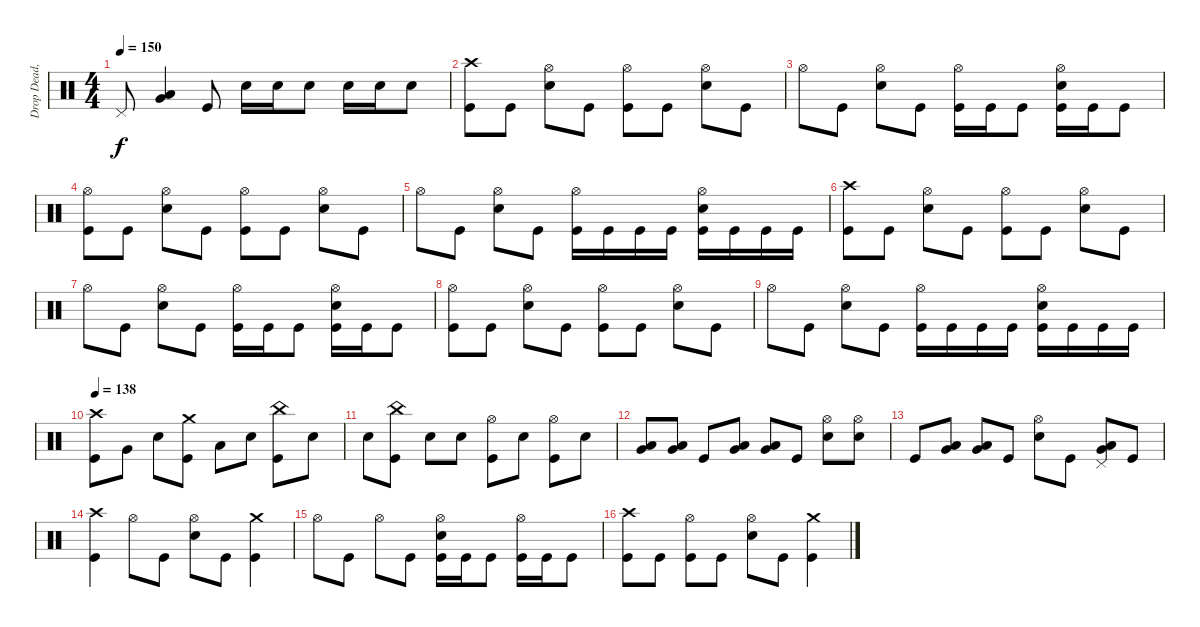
\track ("Drop Dead, Johnny" "Drop Dead,") {instrument percussion}
\staff {score}
\articulation defaults
\ts (4 4)
\tempo 150
\clef neutral
\ks c "Pedal Hi-Hat (hit)".8{dy f}
("Very Low Tom (hit)" "Low Floor Tom (hit)").4 "Kick (hit)".8 "Electric Snare (hit)".16 "Electric Snare (hit)".16 "Electric Snare (hit)".8 "Electric Snare (hit)".16 "Electric Snare (hit)".16 "Electric Snare (hit)".8 |
("Crash high (hit)" "Kick (hit)").8 "Kick (hit)".8 ("Hi-Hat (open)" "Electric Snare (hit)").8 "Kick (hit)".8 ("Hi-Hat (open)" "Kick (hit)").8 "Kick (hit)".8 ("Hi-Hat (open)" "Electric Snare (hit)").8 "Kick (hit)".8 |
"Hi-Hat (open)".8 "Kick (hit)".8 ("Hi-Hat (open)" "Electric Snare (hit)").8 "Kick (hit)".8 ("Hi-Hat (open)" "Kick (hit)").16 "Kick (hit)".16 "Kick (hit)".8 ("Hi-Hat (open)" "Electric Snare (hit)" "Kick (hit)").16 "Kick (hit)".16 "Kick (hit)".8 |
("Hi-Hat (open)" "Kick (hit)").8 "Kick (hit)".8 ("Hi-Hat (open)" "Electric Snare (hit)").8 "Kick (hit)".8 ("Hi-Hat (open)" "Kick (hit)").8 "Kick (hit)".8 ("Hi-Hat (open)" "Electric Snare (hit)").8 "Kick (hit)".8 |
"Hi-Hat (open)".8 "Kick (hit)".8 ("Hi-Hat (open)" "Electric Snare (hit)").8 "Kick (hit)".8 ("Hi-Hat (open)" "Kick (hit)").16 "Kick (hit)".16 "Kick (hit)".16 "Kick (hit)".16 ("Hi-Hat (open)" "Electric Snare (hit)" "Kick (hit)").16 "Kick (hit)".16 "Kick (hit)".16 "Kick (hit)".16 |
("Crash high (hit)" "Kick (hit)").8 "Kick (hit)".8 ("Hi-Hat (open)" "Electric Snare (hit)").8 "Kick (hit)".8 ("Hi-Hat (open)" "Kick (hit)").8 "Kick (hit)".8 ("Hi-Hat (open)" "Electric Snare (hit)").8 "Kick (hit)".8 |
"Hi-Hat (open)".8 "Kick (hit)".8 ("Hi-Hat (open)" "Electric Snare (hit)").8 "Kick (hit)".8 ("Hi-Hat (open)" "Kick (hit)").16 "Kick (hit)".16 "Kick (hit)".8 ("Hi-Hat (open)" "Electric Snare (hit)" "Kick (hit)").16 "Kick (hit)".16 "Kick (hit)".8 |
("Hi-Hat (open)" "Kick (hit)").8 "Kick (hit)".8 ("Hi-Hat (open)" "Electric Snare (hit)").8 "Kick (hit)".8 ("Hi-Hat (open)" "Kick (hit)").8 "Kick (hit)".8 ("Hi-Hat (open)" "Electric Snare (hit)").8 "Kick (hit)".8 |
"Hi-Hat (open)".8 "Kick (hit)".8 ("Hi-Hat (open)" "Electric Snare (hit)").8 "Kick (hit)".8 ("Hi-Hat (open)" "Kick (hit)").16 "Kick (hit)".16 "Kick (hit)".16 "Kick (hit)".16 ("Hi-Hat (open)" "Electric Snare (hit)" "Kick (hit)").16 "Kick (hit)".16 "Kick (hit)".16 "Kick (hit)".16 |
\tempo 138
("Crash high (hit)" "Kick (hit)").8 "Very Low Tom (hit)".8 "Electric Snare (hit)".8 ("Crash medium (hit)" "Kick (hit)").8 "Low Floor Tom (hit)".8 "Electric Snare (hit)".8 ("China (hit)" "Kick (hit)").8 "Electric Snare (hit)".8 |
"Electric Snare (hit)".8 ("China (hit)" "Kick (hit)").8 "Electric Snare (hit)".8 "Electric Snare (hit)".8 ("Hi-Hat (open)" "Kick (hit)").8 "Electric Snare (hit)".8 ("Hi-Hat (open)" "Kick (hit)").8 "Electric Snare (hit)".8 |
("Very Low Tom (hit)" "Low Floor Tom (hit)").8 ("Very Low Tom (hit)" "Low Floor Tom (hit)").8 "Kick (hit)".8 ("Very Low Tom (hit)" "Low Floor Tom (hit)").8 ("Very Low Tom (hit)" "Low Floor Tom (hit)").8 "Kick (hit)".8 ("Hi-Hat (open)" "Electric Snare (hit)").8 ("Hi-Hat (open)" "Electric Snare (hit)").8 |
"Kick (hit)".8 ("Very Low Tom (hit)" "Low Floor Tom (hit)").8 ("Very Low Tom (hit)" "Low Floor Tom (hit)").8 "Kick (hit)".8 ("Hi-Hat (open)" "Electric Snare (hit)").8 "Kick (hit)".8 ("Pedal Hi-Hat (hit)" "Very Low Tom (hit)" "Low Floor Tom (hit)").8 "Kick (hit)".8 |
("Crash high (hit)" "Kick (hit)").4 "Hi-Hat (open)".8 "Kick (hit)".8 ("Hi-Hat (open)" "Electric Snare (hit)").8 "Kick (hit)".8 ("Crash medium (hit)" "Kick (hit)").4 |
"Hi-Hat (open)".8 "Kick (hit)".8 "Hi-Hat (open)".8 "Kick (hit)".8 ("Hi-Hat (open)" "Electric Snare (hit)" "Kick (hit)").16 "Kick (hit)".16 "Kick (hit)".8 ("Hi-Hat (open)" "Kick (hit)").16 "Kick (hit)".16 "Kick (hit)".8 |
("Crash high (hit)" "Kick (hit)").8 "Kick (hit)".8 ("Hi-Hat (open)" "Kick (hit)").8 "Kick (hit)".8 ("Hi-Hat (open)" "Electric Snare (hit)").8 "Kick (hit)".8 ("Crash medium (hit)" "Kick (hit)").4
